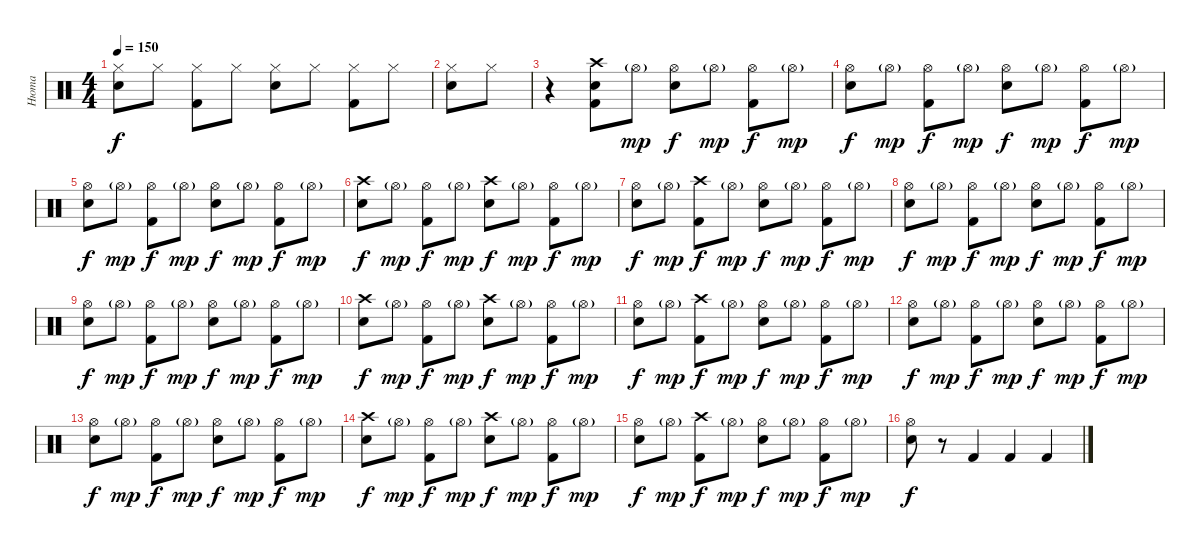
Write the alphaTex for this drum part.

\track ("Нюта" "Нюта") {instrument percussion}
\staff {score}
\articulation defaults
\ts (4 4)
\tempo 150
\clef neutral
\ks c
("Hi-Hat (closed)" "Electric Snare (hit)").8{dy f} "Hi-Hat (closed)".8 ("Hi-Hat (closed)" "Kick (hit) 2").8 "Hi-Hat (closed)".8 ("Hi-Hat (closed)" "Electric Snare (hit)").8 "Hi-Hat (closed)".8 ("Hi-Hat (closed)" "Kick (hit) 2").8 "Hi-Hat (closed)".8 |
("Hi-Hat (closed)" "Electric Snare (hit)").8 "Hi-Hat (closed)".8 |
r.4 ("Snare (hit)" "Kick (hit) 2" "Crash high (hit)").8 "Hi-Hat (open)"{g}.8{dy mp} ("Hi-Hat (open)" "Electric Snare (hit)").8{dy f} "Hi-Hat (open)"{g}.8{dy mp} ("Hi-Hat (open)" "Kick (hit) 2").8{dy f} "Hi-Hat (open)"{g}.8{dy mp} |
("Hi-Hat (open)" "Electric Snare (hit)").8{dy f} "Hi-Hat (open)"{g}.8{dy mp} ("Hi-Hat (open)" "Kick (hit) 2").8{dy f} "Hi-Hat (open)"{g}.8{dy mp} ("Hi-Hat (open)" "Electric Snare (hit)").8{dy f} "Hi-Hat (open)"{g}.8{dy mp} ("Hi-Hat (open)" "Kick (hit) 2").8{dy f} "Hi-Hat (open)"{g}.8{dy mp} |
("Hi-Hat (open)" "Electric Snare (hit)").8{dy f} "Hi-Hat (open)"{g}.8{dy mp} ("Hi-Hat (open)" "Kick (hit) 2").8{dy f} "Hi-Hat (open)"{g}.8{dy mp} ("Hi-Hat (open)" "Electric Snare (hit)").8{dy f} "Hi-Hat (open)"{g}.8{dy mp} ("Hi-Hat (open)" "Kick (hit) 2").8{dy f} "Hi-Hat (open)"{g}.8{dy mp} |
("Crash high (hit)" "Electric Snare (hit)").8{dy f} "Hi-Hat (open)"{g}.8{dy mp} ("Hi-Hat (open)" "Kick (hit) 2").8{dy f} "Hi-Hat (open)"{g}.8{dy mp} ("Crash high (hit)" "Electric Snare (hit)").8{dy f} "Hi-Hat (open)"{g}.8{dy mp} ("Hi-Hat (open)" "Kick (hit) 2").8{dy f} "Hi-Hat (open)"{g}.8{dy mp} |
("Hi-Hat (open)" "Electric Snare (hit)").8{dy f} "Hi-Hat (open)"{g}.8{dy mp} ("Crash high (hit)" "Kick (hit) 2").8{dy f} "Hi-Hat (open)"{g}.8{dy mp} ("Hi-Hat (open)" "Electric Snare (hit)").8{dy f} "Hi-Hat (open)"{g}.8{dy mp} ("Hi-Hat (open)" "Kick (hit) 2").8{dy f} "Hi-Hat (open)"{g}.8{dy mp} |
("Hi-Hat (open)" "Electric Snare (hit)").8{dy f} "Hi-Hat (open)"{g}.8{dy mp} ("Hi-Hat (open)" "Kick (hit) 2").8{dy f} "Hi-Hat (open)"{g}.8{dy mp} ("Hi-Hat (open)" "Electric Snare (hit)").8{dy f} "Hi-Hat (open)"{g}.8{dy mp} ("Hi-Hat (open)" "Kick (hit) 2").8{dy f} "Hi-Hat (open)"{g}.8{dy mp} |
("Hi-Hat (open)" "Electric Snare (hit)").8{dy f} "Hi-Hat (open)"{g}.8{dy mp} ("Hi-Hat (open)" "Kick (hit) 2").8{dy f} "Hi-Hat (open)"{g}.8{dy mp} ("Hi-Hat (open)" "Electric Snare (hit)").8{dy f} "Hi-Hat (open)"{g}.8{dy mp} ("Hi-Hat (open)" "Kick (hit) 2").8{dy f} "Hi-Hat (open)"{g}.8{dy mp} |
("Crash high (hit)" "Electric Snare (hit)").8{dy f} "Hi-Hat (open)"{g}.8{dy mp} ("Hi-Hat (open)" "Kick (hit) 2").8{dy f} "Hi-Hat (open)"{g}.8{dy mp} ("Crash high (hit)" "Electric Snare (hit)").8{dy f} "Hi-Hat (open)"{g}.8{dy mp} ("Hi-Hat (open)" "Kick (hit) 2").8{dy f} "Hi-Hat (open)"{g}.8{dy mp} |
("Hi-Hat (open)" "Electric Snare (hit)").8{dy f} "Hi-Hat (open)"{g}.8{dy mp} ("Crash high (hit)" "Kick (hit) 2").8{dy f} "Hi-Hat (open)"{g}.8{dy mp} ("Hi-Hat (open)" "Electric Snare (hit)").8{dy f} "Hi-Hat (open)"{g}.8{dy mp} ("Hi-Hat (open)" "Kick (hit) 2").8{dy f} "Hi-Hat (open)"{g}.8{dy mp} |
("Hi-Hat (open)" "Electric Snare (hit)").8{dy f} "Hi-Hat (open)"{g}.8{dy mp} ("Hi-Hat (open)" "Kick (hit) 2").8{dy f} "Hi-Hat (open)"{g}.8{dy mp} ("Hi-Hat (open)" "Electric Snare (hit)").8{dy f} "Hi-Hat (open)"{g}.8{dy mp} ("Hi-Hat (open)" "Kick (hit) 2").8{dy f} "Hi-Hat (open)"{g}.8{dy mp} |
("Hi-Hat (open)" "Electric Snare (hit)").8{dy f} "Hi-Hat (open)"{g}.8{dy mp} ("Hi-Hat (open)" "Kick (hit) 2").8{dy f} "Hi-Hat (open)"{g}.8{dy mp} ("Hi-Hat (open)" "Electric Snare (hit)").8{dy f} "Hi-Hat (open)"{g}.8{dy mp} ("Hi-Hat (open)" "Kick (hit) 2").8{dy f} "Hi-Hat (open)"{g}.8{dy mp} |
("Crash high (hit)" "Electric Snare (hit)").8{dy f} "Hi-Hat (open)"{g}.8{dy mp} ("Hi-Hat (open)" "Kick (hit) 2").8{dy f} "Hi-Hat (open)"{g}.8{dy mp} ("Crash high (hit)" "Electric Snare (hit)").8{dy f} "Hi-Hat (open)"{g}.8{dy mp} ("Hi-Hat (open)" "Kick (hit) 2").8{dy f} "Hi-Hat (open)"{g}.8{dy mp} |
("Hi-Hat (open)" "Electric Snare (hit)").8{dy f} "Hi-Hat (open)"{g}.8{dy mp} ("Crash high (hit)" "Kick (hit) 2").8{dy f} "Hi-Hat (open)"{g}.8{dy mp} ("Hi-Hat (open)" "Electric Snare (hit)").8{dy f} "Hi-Hat (open)"{g}.8{dy mp} ("Hi-Hat (open)" "Kick (hit) 2").8{dy f} "Hi-Hat (open)"{g}.8{dy mp} |
("Hi-Hat (open)" "Electric Snare (hit)").8{dy f} r.8 "Kick (hit) 2".4 "Kick (hit) 2".4 "Kick (hit) 2".4
